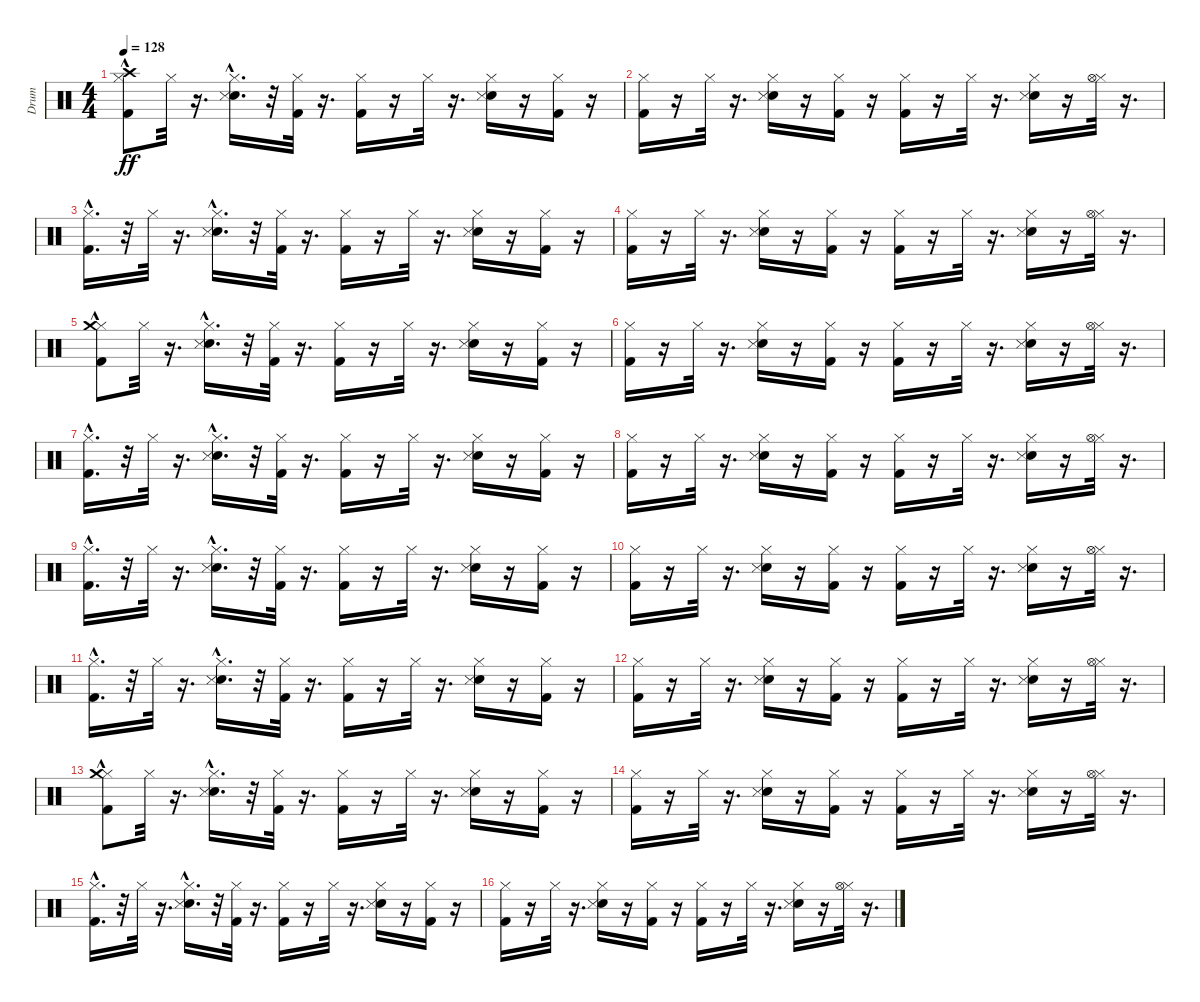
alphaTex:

\track ("Drum" "Drum") {instrument percussion}
\staff {score}
\articulation defaults
\ts (4 4)
\tempo 128
\clef neutral
\ks c
("Kick (hit) 2"{hac} "Hi-Hat (closed)" "Crash high (hit)").8{dy ff} "Hi-Hat (closed)".32 r.16{d} ("Electric Snare (hit)" "Hi-Hat (closed)" "Snare (side stick) 3"{hac}).16{d} r.32 ("Kick (hit) 2" "Hi-Hat (closed)").32 r.16{d} ("Kick (hit) 2" "Hi-Hat (closed)").16 r.16 "Hi-Hat (closed)".32 r.16{d} ("Electric Snare (hit)" "Hi-Hat (closed)" "Snare (side stick) 3").16 r.16 ("Kick (hit) 2" "Hi-Hat (closed)").16 r.16 |
("Hi-Hat (closed)" "Kick (hit) 2").16 r.16 "Hi-Hat (closed)".32 r.16{d} ("Electric Snare (hit)" "Hi-Hat (closed)" "Snare (side stick) 3").16 r.16 ("Kick (hit) 2" "Hi-Hat (closed)").16 r.16 ("Kick (hit) 2" "Hi-Hat (closed)").16 r.16 "Hi-Hat (closed)".32 r.16{d} ("Electric Snare (hit)" "Hi-Hat (closed)" "Snare (side stick) 3").16 r.16 ("Hi-Hat (closed)" "Hi-Hat (open)").32 r.16{d} |
("Kick (hit) 2"{hac} "Hi-Hat (closed)").16{d} r.32 "Hi-Hat (closed)".32 r.16{d} ("Electric Snare (hit)" "Hi-Hat (closed)" "Snare (side stick) 3"{hac}).16{d} r.32 ("Kick (hit) 2" "Hi-Hat (closed)").32 r.16{d} ("Kick (hit) 2" "Hi-Hat (closed)").16 r.16 "Hi-Hat (closed)".32 r.16{d} ("Electric Snare (hit)" "Hi-Hat (closed)" "Snare (side stick) 3").16 r.16 ("Kick (hit) 2" "Hi-Hat (closed)").16 r.16 |
("Hi-Hat (closed)" "Kick (hit) 2").16 r.16 "Hi-Hat (closed)".32 r.16{d} ("Electric Snare (hit)" "Hi-Hat (closed)" "Snare (side stick) 3").16 r.16 ("Kick (hit) 2" "Hi-Hat (closed)").16 r.16 ("Kick (hit) 2" "Hi-Hat (closed)").16 r.16 "Hi-Hat (closed)".32 r.16{d} ("Electric Snare (hit)" "Hi-Hat (closed)" "Snare (side stick) 3").16 r.16 ("Hi-Hat (closed)" "Hi-Hat (open)").32 r.16{d} |
("Kick (hit) 2"{hac} "Hi-Hat (closed)" "Crash medium (hit)").8 "Hi-Hat (closed)".32 r.16{d} ("Electric Snare (hit)" "Hi-Hat (closed)" "Snare (side stick) 3"{hac}).16{d} r.32 ("Kick (hit) 2" "Hi-Hat (closed)").32 r.16{d} ("Kick (hit) 2" "Hi-Hat (closed)").16 r.16 "Hi-Hat (closed)".32 r.16{d} ("Electric Snare (hit)" "Hi-Hat (closed)" "Snare (side stick) 3").16 r.16 ("Kick (hit) 2" "Hi-Hat (closed)").16 r.16 |
("Hi-Hat (closed)" "Kick (hit) 2").16 r.16 "Hi-Hat (closed)".32 r.16{d} ("Electric Snare (hit)" "Hi-Hat (closed)" "Snare (side stick) 3").16 r.16 ("Kick (hit) 2" "Hi-Hat (closed)").16 r.16 ("Kick (hit) 2" "Hi-Hat (closed)").16 r.16 "Hi-Hat (closed)".32 r.16{d} ("Electric Snare (hit)" "Hi-Hat (closed)" "Snare (side stick) 3").16 r.16 ("Hi-Hat (closed)" "Hi-Hat (open)").32 r.16{d} |
("Kick (hit) 2"{hac} "Hi-Hat (closed)").16{d} r.32 "Hi-Hat (closed)".32 r.16{d} ("Electric Snare (hit)" "Hi-Hat (closed)" "Snare (side stick) 3"{hac}).16{d} r.32 ("Kick (hit) 2" "Hi-Hat (closed)").32 r.16{d} ("Kick (hit) 2" "Hi-Hat (closed)").16 r.16 "Hi-Hat (closed)".32 r.16{d} ("Electric Snare (hit)" "Hi-Hat (closed)" "Snare (side stick) 3").16 r.16 ("Kick (hit) 2" "Hi-Hat (closed)").16 r.16 |
("Hi-Hat (closed)" "Kick (hit) 2").16 r.16 "Hi-Hat (closed)".32 r.16{d} ("Electric Snare (hit)" "Hi-Hat (closed)" "Snare (side stick) 3").16 r.16 ("Kick (hit) 2" "Hi-Hat (closed)").16 r.16 ("Kick (hit) 2" "Hi-Hat (closed)").16 r.16 "Hi-Hat (closed)".32 r.16{d} ("Electric Snare (hit)" "Hi-Hat (closed)" "Snare (side stick) 3").16 r.16 ("Hi-Hat (closed)" "Hi-Hat (open)").32 r.16{d} |
("Kick (hit) 2"{hac} "Hi-Hat (closed)").16{d} r.32 "Hi-Hat (closed)".32 r.16{d} ("Electric Snare (hit)" "Hi-Hat (closed)" "Snare (side stick) 3"{hac}).16{d} r.32 ("Kick (hit) 2" "Hi-Hat (closed)").32 r.16{d} ("Kick (hit) 2" "Hi-Hat (closed)").16 r.16 "Hi-Hat (closed)".32 r.16{d} ("Electric Snare (hit)" "Hi-Hat (closed)" "Snare (side stick) 3").16 r.16 ("Kick (hit) 2" "Hi-Hat (closed)").16 r.16 |
("Hi-Hat (closed)" "Kick (hit) 2").16 r.16 "Hi-Hat (closed)".32 r.16{d} ("Electric Snare (hit)" "Hi-Hat (closed)" "Snare (side stick) 3").16 r.16 ("Kick (hit) 2" "Hi-Hat (closed)").16 r.16 ("Kick (hit) 2" "Hi-Hat (closed)").16 r.16 "Hi-Hat (closed)".32 r.16{d} ("Electric Snare (hit)" "Hi-Hat (closed)" "Snare (side stick) 3").16 r.16 ("Hi-Hat (closed)" "Hi-Hat (open)").32 r.16{d} |
("Kick (hit) 2"{hac} "Hi-Hat (closed)").16{d} r.32 "Hi-Hat (closed)".32 r.16{d} ("Electric Snare (hit)" "Hi-Hat (closed)" "Snare (side stick) 3"{hac}).16{d} r.32 ("Kick (hit) 2" "Hi-Hat (closed)").32 r.16{d} ("Kick (hit) 2" "Hi-Hat (closed)").16 r.16 "Hi-Hat (closed)".32 r.16{d} ("Electric Snare (hit)" "Hi-Hat (closed)" "Snare (side stick) 3").16 r.16 ("Kick (hit) 2" "Hi-Hat (closed)").16 r.16 |
("Hi-Hat (closed)" "Kick (hit) 2").16 r.16 "Hi-Hat (closed)".32 r.16{d} ("Electric Snare (hit)" "Hi-Hat (closed)" "Snare (side stick) 3").16 r.16 ("Kick (hit) 2" "Hi-Hat (closed)").16 r.16 ("Kick (hit) 2" "Hi-Hat (closed)").16 r.16 "Hi-Hat (closed)".32 r.16{d} ("Electric Snare (hit)" "Hi-Hat (closed)" "Snare (side stick) 3").16 r.16 ("Hi-Hat (closed)" "Hi-Hat (open)").32 r.16{d} |
("Kick (hit) 2"{hac} "Hi-Hat (closed)" "Crash medium (hit)").8 "Hi-Hat (closed)".32 r.16{d} ("Electric Snare (hit)" "Hi-Hat (closed)" "Snare (side stick) 3"{hac}).16{d} r.32 ("Kick (hit) 2" "Hi-Hat (closed)").32 r.16{d} ("Kick (hit) 2" "Hi-Hat (closed)").16 r.16 "Hi-Hat (closed)".32 r.16{d} ("Electric Snare (hit)" "Hi-Hat (closed)" "Snare (side stick) 3").16 r.16 ("Kick (hit) 2" "Hi-Hat (closed)").16 r.16 |
("Hi-Hat (closed)" "Kick (hit) 2").16 r.16 "Hi-Hat (closed)".32 r.16{d} ("Electric Snare (hit)" "Hi-Hat (closed)" "Snare (side stick) 3").16 r.16 ("Kick (hit) 2" "Hi-Hat (closed)").16 r.16 ("Kick (hit) 2" "Hi-Hat (closed)").16 r.16 "Hi-Hat (closed)".32 r.16{d} ("Electric Snare (hit)" "Hi-Hat (closed)" "Snare (side stick) 3").16 r.16 ("Hi-Hat (closed)" "Hi-Hat (open)").32 r.16{d} |
("Kick (hit) 2"{hac} "Hi-Hat (closed)").16{d} r.32 "Hi-Hat (closed)".32 r.16{d} ("Electric Snare (hit)" "Hi-Hat (closed)" "Snare (side stick) 3"{hac}).16{d} r.32 ("Kick (hit) 2" "Hi-Hat (closed)").32 r.16{d} ("Kick (hit) 2" "Hi-Hat (closed)").16 r.16 "Hi-Hat (closed)".32 r.16{d} ("Electric Snare (hit)" "Hi-Hat (closed)" "Snare (side stick) 3").16 r.16 ("Kick (hit) 2" "Hi-Hat (closed)").16 r.16 |
("Hi-Hat (closed)" "Kick (hit) 2").16 r.16 "Hi-Hat (closed)".32 r.16{d} ("Electric Snare (hit)" "Hi-Hat (closed)" "Snare (side stick) 3").16 r.16 ("Kick (hit) 2" "Hi-Hat (closed)").16 r.16 ("Kick (hit) 2" "Hi-Hat (closed)").16 r.16 "Hi-Hat (closed)".32 r.16{d} ("Electric Snare (hit)" "Hi-Hat (closed)" "Snare (side stick) 3").16 r.16 ("Hi-Hat (closed)" "Hi-Hat (open)").32 r.16{d}
